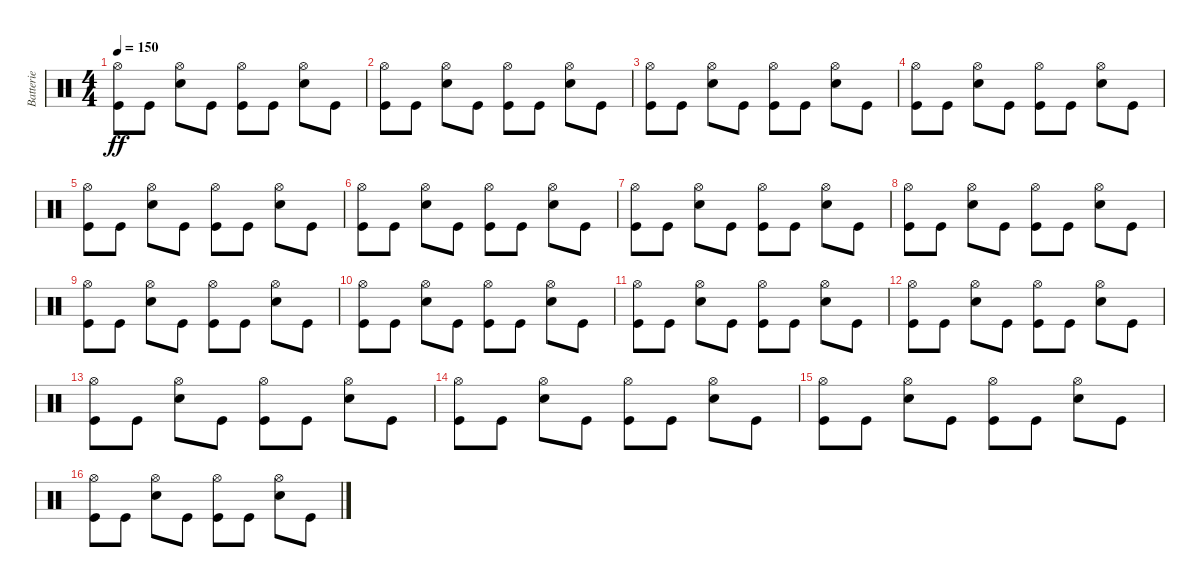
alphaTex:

\track ("Batterie" "Batterie") {instrument percussion}
\staff {score}
\articulation defaults
\ts (4 4)
\tempo 150
\clef neutral
\ks c
("Kick (hit)" "Hi-Hat (open)").8{dy ff} "Kick (hit)".8 ("Electric Snare (hit)" "Hi-Hat (open)").8 "Kick (hit)".8 ("Kick (hit)" "Hi-Hat (open)").8 "Kick (hit)".8 ("Electric Snare (hit)" "Hi-Hat (open)").8 "Kick (hit)".8 |
("Kick (hit)" "Hi-Hat (open)").8 "Kick (hit)".8 ("Electric Snare (hit)" "Hi-Hat (open)").8 "Kick (hit)".8 ("Kick (hit)" "Hi-Hat (open)").8 "Kick (hit)".8 ("Electric Snare (hit)" "Hi-Hat (open)").8 "Kick (hit)".8 |
("Kick (hit)" "Hi-Hat (open)").8 "Kick (hit)".8 ("Electric Snare (hit)" "Hi-Hat (open)").8 "Kick (hit)".8 ("Kick (hit)" "Hi-Hat (open)").8 "Kick (hit)".8 ("Electric Snare (hit)" "Hi-Hat (open)").8 "Kick (hit)".8 |
("Kick (hit)" "Hi-Hat (open)").8 "Kick (hit)".8 ("Electric Snare (hit)" "Hi-Hat (open)").8 "Kick (hit)".8 ("Kick (hit)" "Hi-Hat (open)").8 "Kick (hit)".8 ("Electric Snare (hit)" "Hi-Hat (open)").8 "Kick (hit)".8 |
("Kick (hit)" "Hi-Hat (open)").8 "Kick (hit)".8 ("Electric Snare (hit)" "Hi-Hat (open)").8 "Kick (hit)".8 ("Kick (hit)" "Hi-Hat (open)").8 "Kick (hit)".8 ("Electric Snare (hit)" "Hi-Hat (open)").8 "Kick (hit)".8 |
("Kick (hit)" "Hi-Hat (open)").8 "Kick (hit)".8 ("Electric Snare (hit)" "Hi-Hat (open)").8 "Kick (hit)".8 ("Kick (hit)" "Hi-Hat (open)").8 "Kick (hit)".8 ("Electric Snare (hit)" "Hi-Hat (open)").8 "Kick (hit)".8 |
("Kick (hit)" "Hi-Hat (open)").8 "Kick (hit)".8 ("Electric Snare (hit)" "Hi-Hat (open)").8 "Kick (hit)".8 ("Kick (hit)" "Hi-Hat (open)").8 "Kick (hit)".8 ("Electric Snare (hit)" "Hi-Hat (open)").8 "Kick (hit)".8 |
("Kick (hit)" "Hi-Hat (open)").8 "Kick (hit)".8 ("Electric Snare (hit)" "Hi-Hat (open)").8 "Kick (hit)".8 ("Kick (hit)" "Hi-Hat (open)").8 "Kick (hit)".8 ("Electric Snare (hit)" "Hi-Hat (open)").8 "Kick (hit)".8 |
("Kick (hit)" "Hi-Hat (open)").8 "Kick (hit)".8 ("Electric Snare (hit)" "Hi-Hat (open)").8 "Kick (hit)".8 ("Kick (hit)" "Hi-Hat (open)").8 "Kick (hit)".8 ("Electric Snare (hit)" "Hi-Hat (open)").8 "Kick (hit)".8 |
("Kick (hit)" "Hi-Hat (open)").8 "Kick (hit)".8 ("Electric Snare (hit)" "Hi-Hat (open)").8 "Kick (hit)".8 ("Kick (hit)" "Hi-Hat (open)").8 "Kick (hit)".8 ("Electric Snare (hit)" "Hi-Hat (open)").8 "Kick (hit)".8 |
("Kick (hit)" "Hi-Hat (open)").8 "Kick (hit)".8 ("Electric Snare (hit)" "Hi-Hat (open)").8 "Kick (hit)".8 ("Kick (hit)" "Hi-Hat (open)").8 "Kick (hit)".8 ("Electric Snare (hit)" "Hi-Hat (open)").8 "Kick (hit)".8 |
("Kick (hit)" "Hi-Hat (open)").8 "Kick (hit)".8 ("Electric Snare (hit)" "Hi-Hat (open)").8 "Kick (hit)".8 ("Kick (hit)" "Hi-Hat (open)").8 "Kick (hit)".8 ("Electric Snare (hit)" "Hi-Hat (open)").8 "Kick (hit)".8 |
("Kick (hit)" "Hi-Hat (open)").8 "Kick (hit)".8 ("Electric Snare (hit)" "Hi-Hat (open)").8 "Kick (hit)".8 ("Kick (hit)" "Hi-Hat (open)").8 "Kick (hit)".8 ("Electric Snare (hit)" "Hi-Hat (open)").8 "Kick (hit)".8 |
("Kick (hit)" "Hi-Hat (open)").8 "Kick (hit)".8 ("Electric Snare (hit)" "Hi-Hat (open)").8 "Kick (hit)".8 ("Kick (hit)" "Hi-Hat (open)").8 "Kick (hit)".8 ("Electric Snare (hit)" "Hi-Hat (open)").8 "Kick (hit)".8 |
("Kick (hit)" "Hi-Hat (open)").8 "Kick (hit)".8 ("Electric Snare (hit)" "Hi-Hat (open)").8 "Kick (hit)".8 ("Kick (hit)" "Hi-Hat (open)").8 "Kick (hit)".8 ("Electric Snare (hit)" "Hi-Hat (open)").8 "Kick (hit)".8 |
("Kick (hit)" "Hi-Hat (open)").8 "Kick (hit)".8 ("Electric Snare (hit)" "Hi-Hat (open)").8 "Kick (hit)".8 ("Kick (hit)" "Hi-Hat (open)").8 "Kick (hit)".8 ("Electric Snare (hit)" "Hi-Hat (open)").8 "Kick (hit)".8
